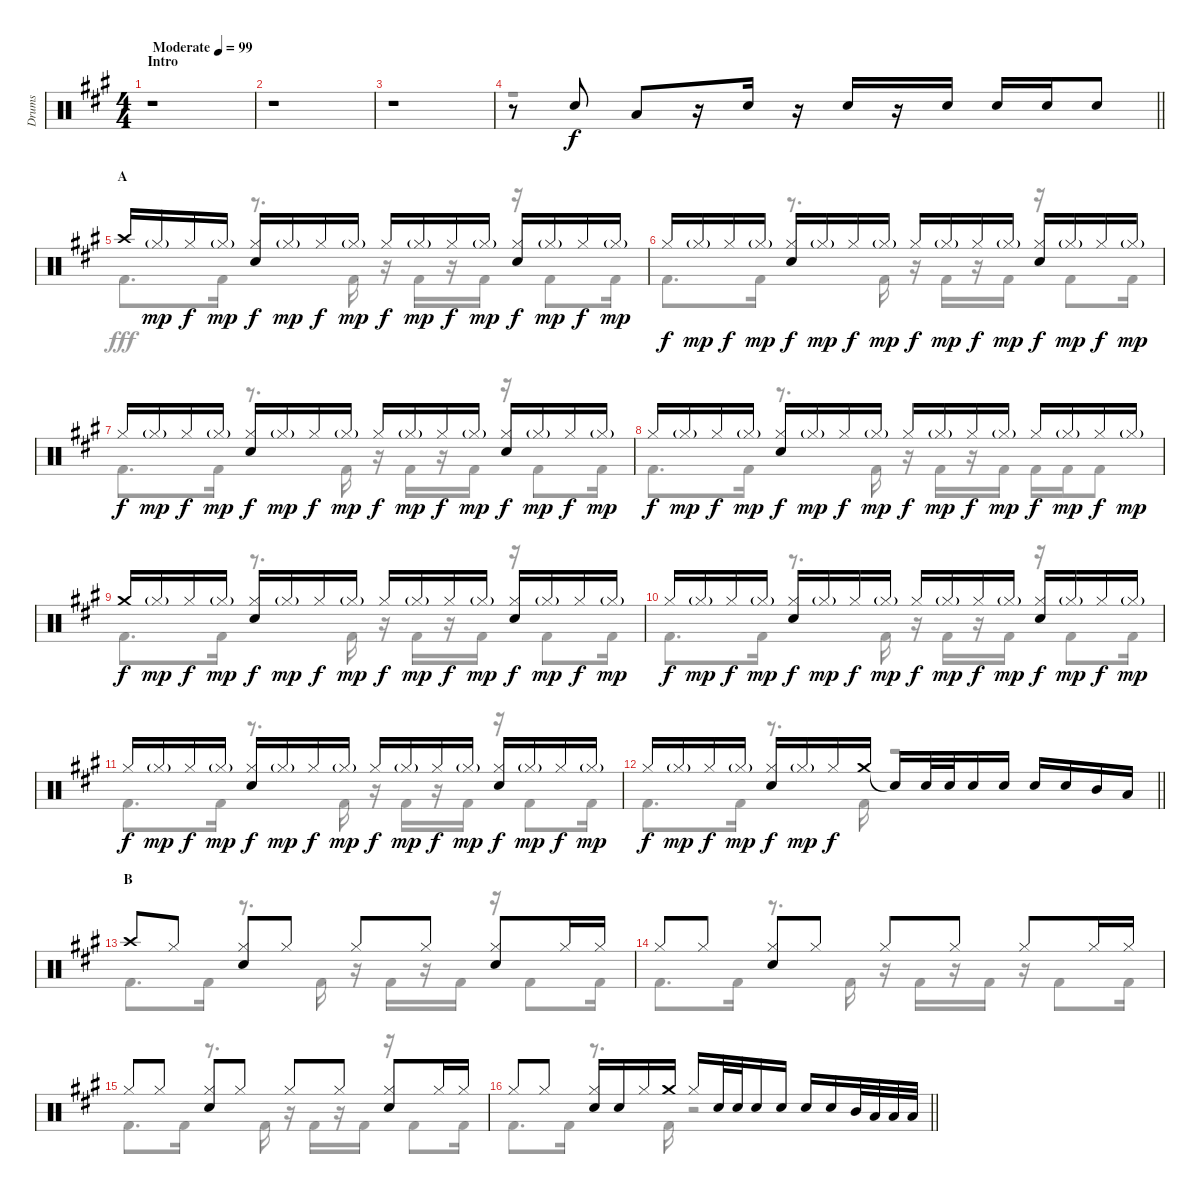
\track ("Drums" "Drums") {instrument percussion}
\staff {score}
\articulation defaults
\voice
\ts (4 4)
\section ("" "Intro")
\tempo (99 "Moderate")
\clef neutral
\ks a
r.1{dy f} |
r.1 |
r.1 |
\barLineRight lightlight
r.8 "Snare (hit) 2".8 "Low Tom (hit)".8 r.16 "Snare (hit) 2".16 r.16 "Snare (hit) 2".16 r.16 "Snare (hit) 2".16 "Snare (hit) 2".16 "Snare (hit) 2".16 "Snare (hit) 2".8 |
\section ("" "A")
"Crash high (hit)".16 "Hi-Hat (closed)"{g}.16{dy mp} "Hi-Hat (closed)".16{dy f} "Hi-Hat (closed)"{g}.16{dy mp} ("Hi-Hat (closed)" "Snare (hit) 2").16{dy f} "Hi-Hat (closed)"{g}.16{dy mp} "Hi-Hat (closed)".16{dy f} "Hi-Hat (closed)"{g}.16{dy mp} "Hi-Hat (closed)".16{dy f} "Hi-Hat (closed)"{g}.16{dy mp} "Hi-Hat (closed)".16{dy f} "Hi-Hat (closed)"{g}.16{dy mp} ("Hi-Hat (closed)" "Snare (hit) 2").16{dy f} "Hi-Hat (closed)"{g}.16{dy mp} "Hi-Hat (closed)".16{dy f} "Hi-Hat (closed)"{g}.16{dy mp} |
"Hi-Hat (closed)".16{dy f} "Hi-Hat (closed)"{g}.16{dy mp} "Hi-Hat (closed)".16{dy f} "Hi-Hat (closed)"{g}.16{dy mp} ("Hi-Hat (closed)" "Snare (hit) 2").16{dy f} "Hi-Hat (closed)"{g}.16{dy mp} "Hi-Hat (closed)".16{dy f} "Hi-Hat (closed)"{g}.16{dy mp} "Hi-Hat (closed)".16{dy f} "Hi-Hat (closed)"{g}.16{dy mp} "Hi-Hat (closed)".16{dy f} "Hi-Hat (closed)"{g}.16{dy mp} ("Hi-Hat (closed)" "Snare (hit) 2").16{dy f} "Hi-Hat (closed)"{g}.16{dy mp} "Hi-Hat (closed)".16{dy f} "Hi-Hat (closed)"{g}.16{dy mp} |
"Hi-Hat (closed)".16{dy f} "Hi-Hat (closed)"{g}.16{dy mp} "Hi-Hat (closed)".16{dy f} "Hi-Hat (closed)"{g}.16{dy mp} ("Hi-Hat (closed)" "Snare (hit) 2").16{dy f} "Hi-Hat (closed)"{g}.16{dy mp} "Hi-Hat (closed)".16{dy f} "Hi-Hat (closed)"{g}.16{dy mp} "Hi-Hat (closed)".16{dy f} "Hi-Hat (closed)"{g}.16{dy mp} "Hi-Hat (closed)".16{dy f} "Hi-Hat (closed)"{g}.16{dy mp} ("Hi-Hat (closed)" "Snare (hit) 2").16{dy f} "Hi-Hat (closed)"{g}.16{dy mp} "Hi-Hat (closed)".16{dy f} "Hi-Hat (closed)"{g}.16{dy mp} |
"Hi-Hat (closed)".16{dy f} "Hi-Hat (closed)"{g}.16{dy mp} "Hi-Hat (closed)".16{dy f} "Hi-Hat (closed)"{g}.16{dy mp} ("Hi-Hat (closed)" "Snare (hit) 2").16{dy f} "Hi-Hat (closed)"{g}.16{dy mp} "Hi-Hat (closed)".16{dy f} "Hi-Hat (closed)"{g}.16{dy mp} "Hi-Hat (closed)".16{dy f} "Hi-Hat (closed)"{g}.16{dy mp} "Hi-Hat (closed)".16{dy f} "Hi-Hat (closed)"{g}.16{dy mp} "Hi-Hat (closed)".16{dy f} "Hi-Hat (closed)"{g}.16{dy mp} "Hi-Hat (closed)".16{dy f} "Hi-Hat (closed)"{g}.16{dy mp} |
"Crash medium (hit)".16{dy f} "Hi-Hat (closed)"{g}.16{dy mp} "Hi-Hat (closed)".16{dy f} "Hi-Hat (closed)"{g}.16{dy mp} ("Hi-Hat (closed)" "Snare (hit) 2").16{dy f} "Hi-Hat (closed)"{g}.16{dy mp} "Hi-Hat (closed)".16{dy f} "Hi-Hat (closed)"{g}.16{dy mp} "Hi-Hat (closed)".16{dy f} "Hi-Hat (closed)"{g}.16{dy mp} "Hi-Hat (closed)".16{dy f} "Hi-Hat (closed)"{g}.16{dy mp} ("Hi-Hat (closed)" "Snare (hit) 2").16{dy f} "Hi-Hat (closed)"{g}.16{dy mp} "Hi-Hat (closed)".16{dy f} "Hi-Hat (closed)"{g}.16{dy mp} |
"Hi-Hat (closed)".16{dy f} "Hi-Hat (closed)"{g}.16{dy mp} "Hi-Hat (closed)".16{dy f} "Hi-Hat (closed)"{g}.16{dy mp} ("Hi-Hat (closed)" "Snare (hit) 2").16{dy f} "Hi-Hat (closed)"{g}.16{dy mp} "Hi-Hat (closed)".16{dy f} "Hi-Hat (closed)"{g}.16{dy mp} "Hi-Hat (closed)".16{dy f} "Hi-Hat (closed)"{g}.16{dy mp} "Hi-Hat (closed)".16{dy f} "Hi-Hat (closed)"{g}.16{dy mp} ("Hi-Hat (closed)" "Snare (hit) 2").16{dy f} "Hi-Hat (closed)"{g}.16{dy mp} "Hi-Hat (closed)".16{dy f} "Hi-Hat (closed)"{g}.16{dy mp} |
"Hi-Hat (closed)".16{dy f} "Hi-Hat (closed)"{g}.16{dy mp} "Hi-Hat (closed)".16{dy f} "Hi-Hat (closed)"{g}.16{dy mp} ("Hi-Hat (closed)" "Snare (hit) 2").16{dy f} "Hi-Hat (closed)"{g}.16{dy mp} "Hi-Hat (closed)".16{dy f} "Hi-Hat (closed)"{g}.16{dy mp} "Hi-Hat (closed)".16{dy f} "Hi-Hat (closed)"{g}.16{dy mp} "Hi-Hat (closed)".16{dy f} "Hi-Hat (closed)"{g}.16{dy mp} ("Hi-Hat (closed)" "Snare (hit) 2").16{dy f} "Hi-Hat (closed)"{g}.16{dy mp} "Hi-Hat (closed)".16{dy f} "Hi-Hat (closed)"{g}.16{dy mp} |
\barLineRight lightlight "Hi-Hat (closed)".16{dy f} "Hi-Hat (closed)"{g}.16{dy mp} "Hi-Hat (closed)".16{dy f} "Hi-Hat (closed)"{g}.16{dy mp}
("Hi-Hat (closed)" "Snare (hit) 2").16{dy f} "Hi-Hat (closed)"{g}.16{dy mp} "Hi-Hat (closed)".16{dy f} "Crash medium (hit)".16 "Snare (hit)"{t}.16 "Snare (hit) 2".32 "Snare (hit) 2".32 "Snare (hit) 2".16 "Snare (hit) 2".16 "Snare (hit) 2".16 "Snare (hit) 2".16 "Mid Tom (hit)".16 "Low Tom (hit)".16 |
\section ("" "B")
"Crash high (hit)".8 "Hi-Hat (closed)".8 ("Hi-Hat (closed)" "Snare (hit) 2").8 "Hi-Hat (closed)".8 "Hi-Hat (closed)".8 "Hi-Hat (closed)".8 ("Hi-Hat (closed)" "Snare (hit) 2").8 "Hi-Hat (closed)".16 "Hi-Hat (closed)".16 |
"Hi-Hat (closed)".8 "Hi-Hat (closed)".8 ("Hi-Hat (closed)" "Snare (hit) 2").8 "Hi-Hat (closed)".8 "Hi-Hat (closed)".8 "Hi-Hat (closed)".8 "Hi-Hat (closed)".8 "Hi-Hat (closed)".16 "Hi-Hat (closed)".16 |
"Hi-Hat (closed)".8 "Hi-Hat (closed)".8 ("Hi-Hat (closed)" "Snare (hit) 2").8 "Hi-Hat (closed)".8 "Hi-Hat (closed)".8 "Hi-Hat (closed)".8 ("Hi-Hat (closed)" "Snare (hit) 2").8 "Hi-Hat (closed)".16 "Hi-Hat (closed)".16 |
\barLineRight lightlight "Hi-Hat (closed)".8 "Hi-Hat (closed)".8
("Hi-Hat (closed)" "Snare (hit) 2").16 "Snare (hit) 2".16 "Hi-Hat (closed)".16 "Crash medium (hit)".16 "Hi-Hat (closed)".16 "Snare (hit) 2".32 "Snare (hit) 2".32 "Snare (hit) 2".16 "Snare (hit) 2".16 "Snare (hit) 2".16 "Snare (hit) 2".16 "Mid Tom (hit)".32 "Low Tom (hit)".32 "Low Tom (hit)".32 "Low Tom (hit)".32
\voice
\clef neutral
\ottava regular
\simile none
\ks a
r.1{dy fff} |
r.1 |
r.1 |
\barLineRight lightlight
r.1 |
"Kick (hit) 2".8{d} "Kick (hit) 2".16 r.8{d} "Kick (hit) 2".16 r.16 "Kick (hit) 2".16 r.16 "Kick (hit) 2".16 r.16 "Kick (hit) 2".8 "Kick (hit) 2".16 |
"Kick (hit) 2".8{d} "Kick (hit) 2".16 r.8{d} "Kick (hit) 2".16 r.16 "Kick (hit) 2".16 r.16 "Kick (hit) 2".16 r.16 "Kick (hit) 2".8 "Kick (hit) 2".16 |
"Kick (hit) 2".8{d} "Kick (hit) 2".16 r.8{d} "Kick (hit) 2".16 r.16 "Kick (hit) 2".16 r.16 "Kick (hit) 2".16 r.16 "Kick (hit) 2".8 "Kick (hit) 2".16 |
"Kick (hit) 2".8{d} "Kick (hit) 2".16 r.8{d} "Kick (hit) 2".16 r.16 "Kick (hit) 2".16 r.16 "Kick (hit) 2".16 "Kick (hit) 2".16 "Kick (hit) 2".16 "Kick (hit) 2".8 |
"Kick (hit) 2".8{d} "Kick (hit) 2".16 r.8{d} "Kick (hit) 2".16 r.16 "Kick (hit) 2".16 r.16 "Kick (hit) 2".16 r.16 "Kick (hit) 2".8 "Kick (hit) 2".16 |
"Kick (hit) 2".8{d} "Kick (hit) 2".16 r.8{d} "Kick (hit) 2".16 r.16 "Kick (hit) 2".16 r.16 "Kick (hit) 2".16 r.16 "Kick (hit) 2".8 "Kick (hit) 2".16 |
"Kick (hit) 2".8{d} "Kick (hit) 2".16 r.8{d} "Kick (hit) 2".16 r.16 "Kick (hit) 2".16 r.16 "Kick (hit) 2".16 r.16 "Kick (hit) 2".8 "Kick (hit) 2".16 |
\barLineRight lightlight "Kick (hit) 2".8{d} "Kick (hit) 2".16
r.8{d} "Kick (hit) 2".16 r.2 |
"Kick (hit) 2".8{d} "Kick (hit) 2".16 r.8{d} "Kick (hit) 2".16 r.16 "Kick (hit) 2".16 r.16 "Kick (hit) 2".16 r.16 "Kick (hit) 2".8 "Kick (hit) 2".16 |
"Kick (hit) 2".8{d} "Kick (hit) 2".16 r.8{d} "Kick (hit) 2".16 r.16 "Kick (hit) 2".16 r.16 "Kick (hit) 2".16 r.16 "Kick (hit) 2".8 "Kick (hit) 2".16 |
"Kick (hit) 2".8{d} "Kick (hit) 2".16 r.8{d} "Kick (hit) 2".16 r.16 "Kick (hit) 2".16 r.16 "Kick (hit) 2".16 r.16 "Kick (hit) 2".8 "Kick (hit) 2".16 |
\barLineRight lightlight "Kick (hit) 2".8{d} "Kick (hit) 2".16
r.8{d} "Kick (hit) 2".16 r.2
